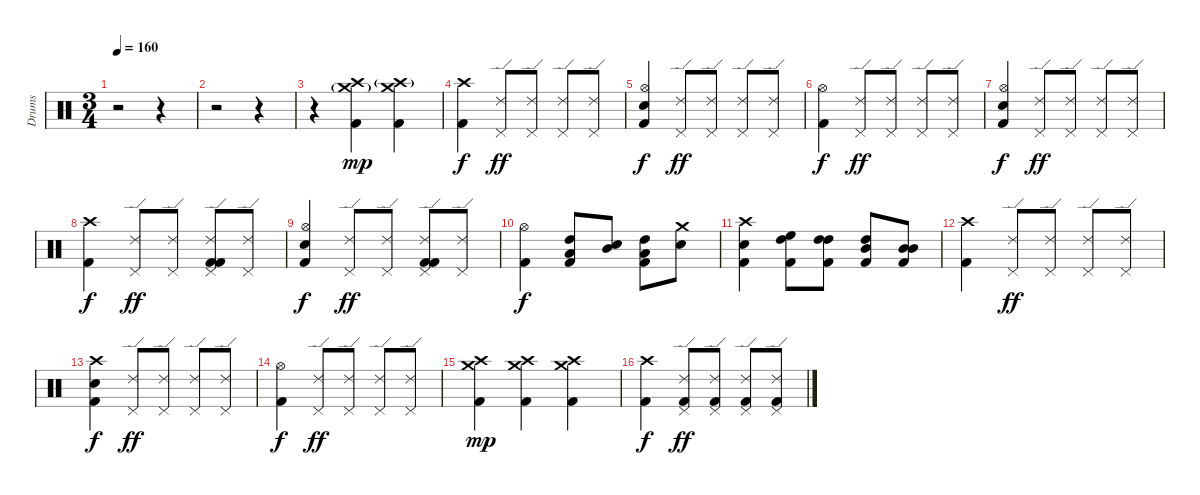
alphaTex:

\track ("Drums" "Drums") {instrument percussion}
\staff {score}
\articulation defaults
\ts (3 4)
\tempo 160
\clef neutral
\ks c
r.2{dy f} r.4 |
r.2 r.4 |
r.4 ("Crash high (hit)" "Crash medium (hit)"{g} "Kick (hit) 2").4{dy mp} ("Crash high (hit)"{g} "Crash medium (hit)" "Kick (hit) 2").4 |
("Crash high (hit)" "Kick (hit) 2").4{dy f} ("Ride (edge) 2" "Pedal Hi-Hat (hit)").8{dy ff} ("Ride (edge) 2" "Pedal Hi-Hat (hit)").8 ("Ride (edge) 2" "Pedal Hi-Hat (hit)").8 ("Ride (edge) 2" "Pedal Hi-Hat (hit)").8 |
("Hi-Hat (open)" "Electric Snare (hit)" "Kick (hit) 2").4{dy f} ("Ride (edge) 2" "Pedal Hi-Hat (hit)").8{dy ff} ("Ride (edge) 2" "Pedal Hi-Hat (hit)").8 ("Ride (edge) 2" "Pedal Hi-Hat (hit)").8 ("Ride (edge) 2" "Pedal Hi-Hat (hit)").8 |
("Hi-Hat (open)" "Kick (hit) 2").4{dy f} ("Ride (edge) 2" "Pedal Hi-Hat (hit)").8{dy ff} ("Ride (edge) 2" "Pedal Hi-Hat (hit)").8 ("Ride (edge) 2" "Pedal Hi-Hat (hit)").8 ("Ride (edge) 2" "Pedal Hi-Hat (hit)").8 |
("Hi-Hat (open)" "Electric Snare (hit)" "Kick (hit) 2").4{dy f} ("Ride (edge) 2" "Pedal Hi-Hat (hit)").8{dy ff} ("Ride (edge) 2" "Pedal Hi-Hat (hit)").8 ("Ride (edge) 2" "Pedal Hi-Hat (hit)").8 ("Ride (edge) 2" "Pedal Hi-Hat (hit)").8 |
("Crash high (hit)" "Kick (hit) 2").4{dy f} ("Ride (edge) 2" "Pedal Hi-Hat (hit)").8{dy ff} ("Ride (edge) 2" "Pedal Hi-Hat (hit)").8 ("Ride (edge) 2" "Pedal Hi-Hat (hit)" "Kick (hit) 2" "Kick (hit) 2").8 ("Ride (edge) 2" "Pedal Hi-Hat (hit)").8 |
("Hi-Hat (open)" "Electric Snare (hit)" "Kick (hit) 2").4{dy f} ("Ride (edge) 2" "Pedal Hi-Hat (hit)").8{dy ff} ("Ride (edge) 2" "Pedal Hi-Hat (hit)").8 ("Ride (edge) 2" "Pedal Hi-Hat (hit)" "Kick (hit) 2" "Kick (hit) 2").8 ("Ride (edge) 2" "Pedal Hi-Hat (hit)").8 |
("Hi-Hat (open)" "Kick (hit) 2").4{dy f} ("High Tom (hit)" "Low Tom (hit)" "Kick (hit) 2").8 ("Mid Tom (hit)" "Electric Snare (hit)").8 ("High Tom (hit)" "Low Tom (hit)" "Kick (hit) 2").8 ("Crash medium (hit)" "Electric Snare (hit)").8 |
("Crash high (hit)" "Electric Snare (hit)" "Kick (hit) 2").4 ("High Tom (hit)" "High Floor Tom (hit)" "Kick (hit) 2").8 ("High Tom (hit)" "High Tom (hit)" "Kick (hit) 2").8 ("Mid Tom (hit)" "High Tom (hit)" "Kick (hit) 2").8 ("Mid Tom (hit)" "Mid Tom (hit)" "Kick (hit) 2").8 |
("Crash high (hit)" "Kick (hit) 2").4 ("Ride (edge) 2" "Pedal Hi-Hat (hit)").8{dy ff} ("Ride (edge) 2" "Pedal Hi-Hat (hit)").8 ("Ride (edge) 2" "Pedal Hi-Hat (hit)").8 ("Ride (edge) 2" "Pedal Hi-Hat (hit)").8 |
("Crash high (hit)" "Electric Snare (hit)" "Kick (hit) 2").4{dy f} ("Ride (edge) 2" "Pedal Hi-Hat (hit)").8{dy ff} ("Ride (edge) 2" "Pedal Hi-Hat (hit)").8 ("Ride (edge) 2" "Pedal Hi-Hat (hit)").8 ("Ride (edge) 2" "Pedal Hi-Hat (hit)").8 |
("Hi-Hat (open)" "Kick (hit) 2").4{dy f} ("Ride (edge) 2" "Pedal Hi-Hat (hit)").8{dy ff} ("Ride (edge) 2" "Pedal Hi-Hat (hit)").8 ("Ride (edge) 2" "Pedal Hi-Hat (hit)").8 ("Ride (edge) 2" "Pedal Hi-Hat (hit)").8 |
("Crash high (hit)" "Crash medium (hit)" "Kick (hit) 2").4{dy mp} ("Crash high (hit)" "Crash medium (hit)" "Kick (hit) 2").4 ("Crash medium (hit)" "Crash high (hit)" "Kick (hit) 2").4 |
("Crash high (hit)" "Kick (hit) 2").4{dy f} ("Ride (edge) 2" "Pedal Hi-Hat (hit)" "Kick (hit) 2").8{dy ff} ("Ride (edge) 2" "Pedal Hi-Hat (hit)" "Kick (hit) 2").8 ("Ride (edge) 2" "Pedal Hi-Hat (hit)" "Kick (hit) 2").8 ("Ride (edge) 2" "Pedal Hi-Hat (hit)" "Kick (hit) 2").8
